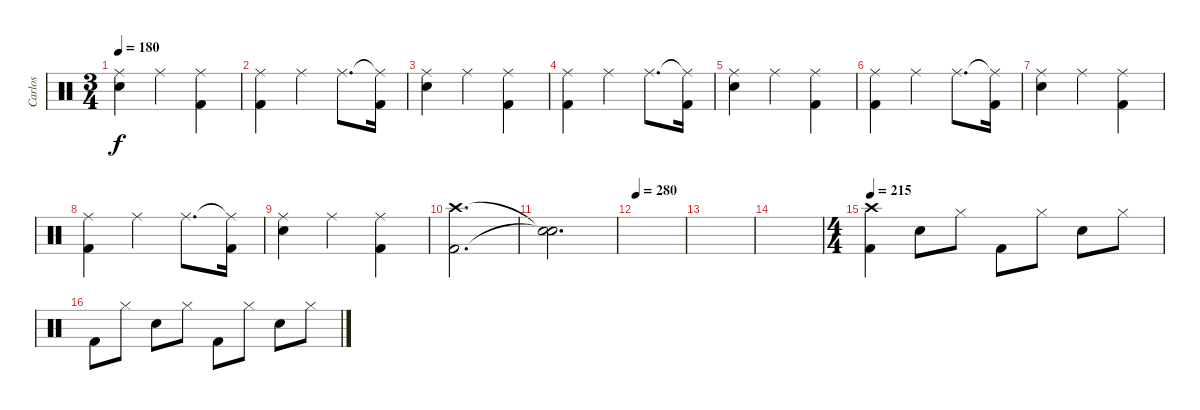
\track ("Carlos" "Carlos") {instrument percussion}
\staff {score}
\articulation defaults
\ts (3 4)
\tempo 180
\clef neutral
\ks c
("Ride (middle)" "Snare (hit) 2").4{dy f} "Ride (middle)".4 ("Ride (middle)" "Kick (hit) 2").4 |
("Ride (middle)" "Kick (hit) 2").4 "Ride (middle)".4 "Ride (middle)".8{d} ("Ride (middle)"{t} "Kick (hit) 2").16 |
("Ride (middle)" "Snare (hit) 2").4 "Ride (middle)".4 ("Ride (middle)" "Kick (hit) 2").4 |
("Ride (middle)" "Kick (hit) 2").4 "Ride (middle)".4 "Ride (middle)".8{d} ("Ride (middle)"{t} "Kick (hit) 2").16 |
("Ride (middle)" "Snare (hit) 2").4 "Ride (middle)".4 ("Ride (middle)" "Kick (hit) 2").4 |
("Ride (middle)" "Kick (hit) 2").4 "Ride (middle)".4 "Ride (middle)".8{d} ("Ride (middle)"{t} "Kick (hit) 2").16 |
("Ride (middle)" "Snare (hit) 2").4 "Ride (middle)".4 ("Ride (middle)" "Kick (hit) 2").4 |
("Ride (middle)" "Kick (hit) 2").4 "Ride (middle)".4 "Ride (middle)".8{d} ("Ride (middle)"{t} "Kick (hit) 2").16 |
("Ride (middle)" "Snare (hit) 2").4 "Ride (middle)".4 ("Ride (middle)" "Kick (hit) 2").4 |
("Crash high (hit)" "Kick (hit) 2").2{d} |
("Snare (hit)"{t} "Snare (hit)"{t}).2{d} |
\tempo 280
|
|
|
\ts (4 4)
\tempo 215
("Crash high (hit)" "Kick (hit) 2").4 "Snare (hit) 2".8 "Hi-Hat (closed)".8 "Kick (hit) 2".8 "Hi-Hat (closed)".8 "Snare (hit) 2".8 "Hi-Hat (closed)".8 |
"Kick (hit) 2".8 "Hi-Hat (closed)".8 "Snare (hit) 2".8 "Hi-Hat (closed)".8 "Kick (hit) 2".8 "Hi-Hat (closed)".8 "Snare (hit) 2".8 "Hi-Hat (closed)".8
